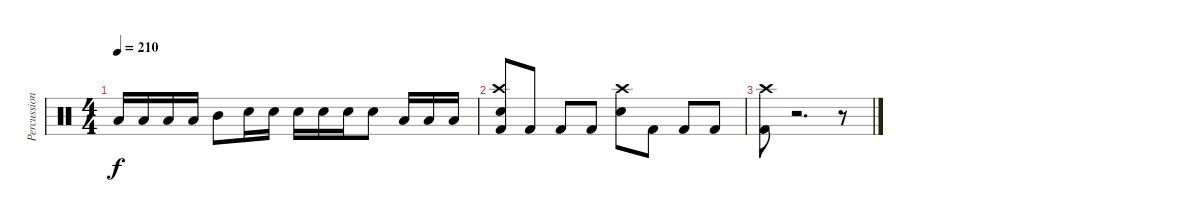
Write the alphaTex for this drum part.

\track ("Percussion" "Percussion") {instrument percussion}
\staff {score}
\articulation defaults
\ts (4 4)
\tempo 210
\clef neutral
\ks c "Low Tom (hit)".16{dy f} "Low Tom (hit)".16 "Low Tom (hit)".16 "Low Tom (hit)".16 "Mid Tom (hit)".8 "Electric Snare (hit)".16 "Electric Snare (hit)".16 "Electric Snare (hit)".16 "Electric Snare (hit)".16 "Electric Snare (hit)".16 "Electric Snare (hit)".8 "Low Tom (hit)".16 "Low Tom (hit)".16 "Low Tom (hit)".16
|
("Crash high (hit)" "Electric Snare (hit)" "Kick (hit) 2").8 "Kick (hit) 2".8 "Kick (hit) 2".8 "Kick (hit) 2".8 ("Crash high (hit)" "Electric Snare (hit)").8 "Kick (hit) 2".8 "Kick (hit) 2".8 "Kick (hit) 2".8 |
("Crash high (hit)" "Kick (hit) 2").8 r.2{d} r.8
